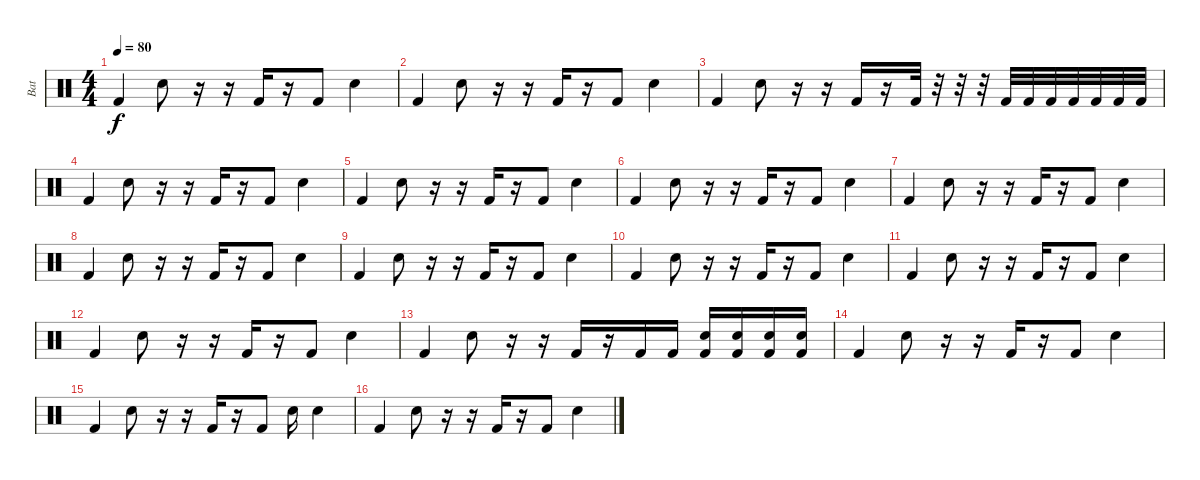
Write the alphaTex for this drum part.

\track ("Bat" "Bat") {instrument percussion}
\staff {score}
\articulation defaults
\ts (4 4)
\tempo 80
\clef neutral
\ks c "Kick (hit) 2".4{dy f} "Snare (hit) 2".8
r.16 r.16 "Kick (hit) 2".16 r.16 "Kick (hit) 2".8 "Snare (hit) 2".4 |
"Kick (hit) 2".4 "Snare (hit) 2".8 r.16 r.16 "Kick (hit) 2".16 r.16 "Kick (hit) 2".8 "Snare (hit) 2".4 |
"Kick (hit) 2".4 "Snare (hit) 2".8 r.16 r.16 "Kick (hit) 2".16 r.16 "Kick (hit) 2".32 r.32 r.32 r.32 "Kick (hit) 2".32 "Kick (hit) 2".32 "Kick (hit) 2".32 "Kick (hit) 2".32 "Kick (hit) 2".32 "Kick (hit) 2".32 "Kick (hit) 2".32 |
"Kick (hit) 2".4 "Snare (hit) 2".8 r.16 r.16 "Kick (hit) 2".16 r.16 "Kick (hit) 2".8 "Snare (hit) 2".4 |
"Kick (hit) 2".4 "Snare (hit) 2".8 r.16 r.16 "Kick (hit) 2".16 r.16 "Kick (hit) 2".8 "Snare (hit) 2".4 |
"Kick (hit) 2".4 "Snare (hit) 2".8 r.16 r.16 "Kick (hit) 2".16 r.16 "Kick (hit) 2".8 "Snare (hit) 2".4 |
"Kick (hit) 2".4 "Snare (hit) 2".8 r.16 r.16 "Kick (hit) 2".16 r.16 "Kick (hit) 2".8 "Snare (hit) 2".4 |
"Kick (hit) 2".4 "Snare (hit) 2".8 r.16 r.16 "Kick (hit) 2".16 r.16 "Kick (hit) 2".8 "Snare (hit) 2".4 |
"Kick (hit) 2".4 "Snare (hit) 2".8 r.16 r.16 "Kick (hit) 2".16 r.16 "Kick (hit) 2".8 "Snare (hit) 2".4 |
"Kick (hit) 2".4 "Snare (hit) 2".8 r.16 r.16 "Kick (hit) 2".16 r.16 "Kick (hit) 2".8 "Snare (hit) 2".4 |
"Kick (hit) 2".4 "Snare (hit) 2".8 r.16 r.16 "Kick (hit) 2".16 r.16 "Kick (hit) 2".8 "Snare (hit) 2".4 |
"Kick (hit) 2".4 "Snare (hit) 2".8 r.16 r.16 "Kick (hit) 2".16 r.16 "Kick (hit) 2".8 "Snare (hit) 2".4 |
"Kick (hit) 2".4 "Snare (hit) 2".8 r.16 r.16 "Kick (hit) 2".16 r.16 "Kick (hit) 2".16 "Kick (hit) 2".16 ("Kick (hit) 2" "Snare (hit) 2").16 ("Kick (hit) 2" "Snare (hit) 2").16 ("Kick (hit) 2" "Snare (hit) 2").16 ("Kick (hit) 2" "Snare (hit) 2").16 |
"Kick (hit) 2".4 "Snare (hit) 2".8 r.16 r.16 "Kick (hit) 2".16 r.16 "Kick (hit) 2".8 "Snare (hit) 2".4 |
"Kick (hit) 2".4 "Snare (hit) 2".8 r.16 r.16 "Kick (hit) 2".16 r.16 "Kick (hit) 2".8 "Snare (hit) 2".16 "Snare (hit) 2".4 |
"Kick (hit) 2".4 "Snare (hit) 2".8 r.16 r.16 "Kick (hit) 2".16 r.16 "Kick (hit) 2".8 "Snare (hit) 2".4
